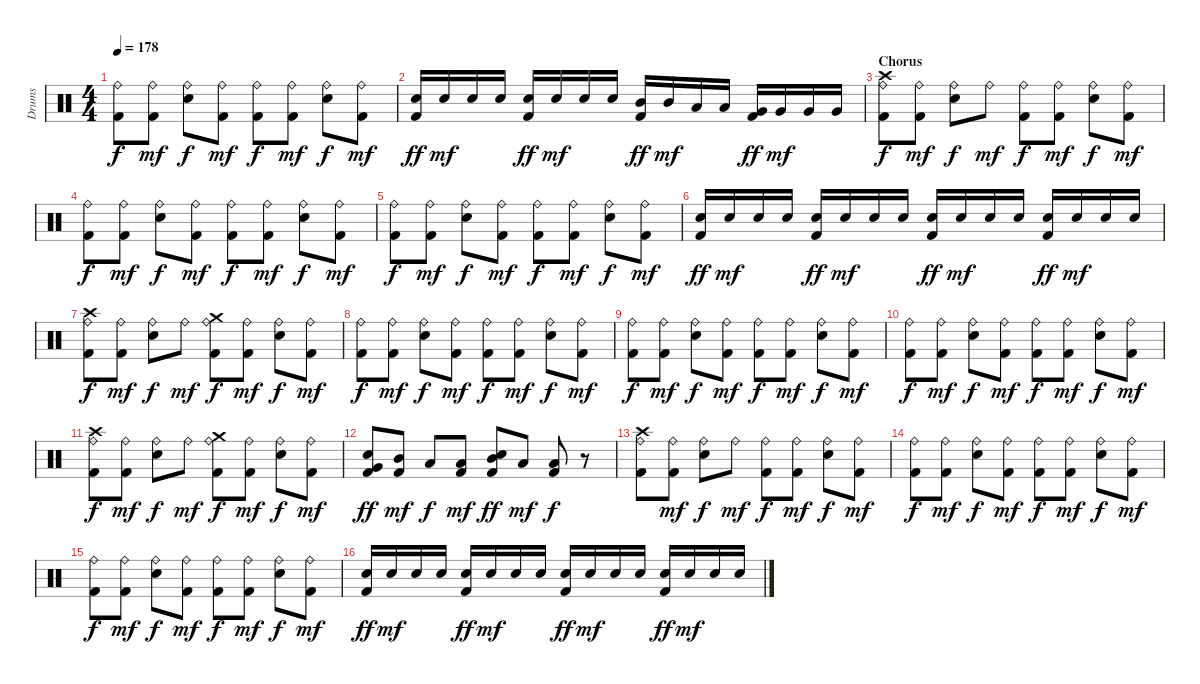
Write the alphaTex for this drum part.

\track ("Drums" "Drums") {instrument percussion}
\staff {score}
\articulation defaults
\ts (4 4)
\tempo 178
\clef neutral
\ks c
("Ride (bell)" "Kick (hit) 2").8{dy f} ("Ride (bell)" "Kick (hit) 2").8{dy mf} ("Ride (bell)" "Electric Snare (hit)").8{dy f} ("Ride (bell)" "Kick (hit) 2").8{dy mf} ("Ride (bell)" "Kick (hit) 2").8{dy f} ("Ride (bell)" "Kick (hit) 2").8{dy mf} ("Ride (bell)" "Electric Snare (hit)").8{dy f} ("Ride (bell)" "Kick (hit) 2").8{dy mf} |
("Electric Snare (hit)" "Kick (hit) 2").16{dy ff} "Electric Snare (hit)".16{dy mf} "Electric Snare (hit)".16 "Electric Snare (hit)".16 ("Electric Snare (hit)" "Kick (hit) 2").16{dy ff} "Electric Snare (hit)".16{dy mf} "Electric Snare (hit)".16 "Electric Snare (hit)".16 ("Mid Tom (hit)" "Kick (hit) 2").16{dy ff} "Mid Tom (hit)".16{dy mf} "Low Tom (hit)".16 "Low Tom (hit)".16 ("Very Low Tom (hit)" "Kick (hit) 2").16{dy ff} "Very Low Tom (hit)".16{dy mf} "Very Low Tom (hit)".16 "Very Low Tom (hit)".16 |
\section ("" "Chorus")
("Crash high (hit)" "Ride (bell)" "Kick (hit) 2").8{dy f} ("Ride (bell)" "Kick (hit) 2").8{dy mf} ("Ride (bell)" "Electric Snare (hit)").8{dy f} "Ride (bell)".8{dy mf} ("Ride (bell)" "Kick (hit) 2").8{dy f} ("Ride (bell)" "Kick (hit) 2").8{dy mf} ("Ride (bell)" "Electric Snare (hit)").8{dy f} ("Ride (bell)" "Kick (hit) 2").8{dy mf} |
("Ride (bell)" "Kick (hit) 2").8{dy f} ("Ride (bell)" "Kick (hit) 2").8{dy mf} ("Ride (bell)" "Electric Snare (hit)").8{dy f} ("Ride (bell)" "Kick (hit) 2").8{dy mf} ("Ride (bell)" "Kick (hit) 2").8{dy f} ("Ride (bell)" "Kick (hit) 2").8{dy mf} ("Ride (bell)" "Electric Snare (hit)").8{dy f} ("Ride (bell)" "Kick (hit) 2").8{dy mf} |
("Ride (bell)" "Kick (hit) 2").8{dy f} ("Ride (bell)" "Kick (hit) 2").8{dy mf} ("Ride (bell)" "Electric Snare (hit)").8{dy f} ("Ride (bell)" "Kick (hit) 2").8{dy mf} ("Ride (bell)" "Kick (hit) 2").8{dy f} ("Ride (bell)" "Kick (hit) 2").8{dy mf} ("Ride (bell)" "Electric Snare (hit)").8{dy f} ("Ride (bell)" "Kick (hit) 2").8{dy mf} |
("Electric Snare (hit)" "Kick (hit) 2").16{dy ff} "Electric Snare (hit)".16{dy mf} "Electric Snare (hit)".16 "Electric Snare (hit)".16 ("Electric Snare (hit)" "Kick (hit) 2").16{dy ff} "Electric Snare (hit)".16{dy mf} "Electric Snare (hit)".16 "Electric Snare (hit)".16 ("Electric Snare (hit)" "Kick (hit) 2").16{dy ff} "Electric Snare (hit)".16{dy mf} "Electric Snare (hit)".16 "Electric Snare (hit)".16 ("Electric Snare (hit)" "Kick (hit) 2").16{dy ff} "Electric Snare (hit)".16{dy mf} "Electric Snare (hit)".16 "Electric Snare (hit)".16 |
("Crash high (hit)" "Ride (bell)" "Kick (hit) 2").8{dy f} ("Ride (bell)" "Kick (hit) 2").8{dy mf} ("Ride (bell)" "Electric Snare (hit)").8{dy f} "Ride (bell)".8{dy mf} ("Crash medium (hit)" "Ride (bell)" "Kick (hit) 2").8{dy f} ("Ride (bell)" "Kick (hit) 2").8{dy mf} ("Ride (bell)" "Electric Snare (hit)").8{dy f} ("Ride (bell)" "Kick (hit) 2").8{dy mf} |
("Ride (bell)" "Kick (hit) 2").8{dy f} ("Ride (bell)" "Kick (hit) 2").8{dy mf} ("Ride (bell)" "Electric Snare (hit)").8{dy f} ("Ride (bell)" "Kick (hit) 2").8{dy mf} ("Ride (bell)" "Kick (hit) 2").8{dy f} ("Ride (bell)" "Kick (hit) 2").8{dy mf} ("Ride (bell)" "Electric Snare (hit)").8{dy f} ("Ride (bell)" "Kick (hit) 2").8{dy mf} |
("Ride (bell)" "Kick (hit) 2").8{dy f} ("Ride (bell)" "Kick (hit) 2").8{dy mf} ("Ride (bell)" "Electric Snare (hit)").8{dy f} ("Ride (bell)" "Kick (hit) 2").8{dy mf} ("Ride (bell)" "Kick (hit) 2").8{dy f} ("Ride (bell)" "Kick (hit) 2").8{dy mf} ("Ride (bell)" "Electric Snare (hit)").8{dy f} ("Ride (bell)" "Kick (hit) 2").8{dy mf} |
("Ride (bell)" "Kick (hit) 2").8{dy f} ("Ride (bell)" "Kick (hit) 2").8{dy mf} ("Ride (bell)" "Electric Snare (hit)").8{dy f} ("Ride (bell)" "Kick (hit) 2").8{dy mf} ("Ride (bell)" "Kick (hit) 2").8{dy f} ("Ride (bell)" "Kick (hit) 2").8{dy mf} ("Ride (bell)" "Electric Snare (hit)").8{dy f} ("Ride (bell)" "Kick (hit) 2").8{dy mf} |
("Crash high (hit)" "Ride (bell)" "Kick (hit) 2").8{dy f} ("Ride (bell)" "Kick (hit) 2").8{dy mf} ("Ride (bell)" "Electric Snare (hit)").8{dy f} "Ride (bell)".8{dy mf} ("Crash medium (hit)" "Ride (bell)" "Kick (hit) 2").8{dy f} ("Ride (bell)" "Kick (hit) 2").8{dy mf} ("Ride (bell)" "Electric Snare (hit)").8{dy f} ("Ride (bell)" "Kick (hit) 2").8{dy mf} |
("Very Low Tom (hit)" "Electric Snare (hit)" "Kick (hit) 2").8{dy ff} ("Mid Tom (hit)" "Kick (hit) 2").8{dy mf} "Low Tom (hit)".8{dy f} ("Low Tom (hit)" "Kick (hit) 2").8{dy mf} ("Mid Tom (hit)" "Electric Snare (hit)" "Kick (hit) 2").8{dy ff} "Low Tom (hit)".8{dy mf} ("Low Tom (hit)" "Kick (hit) 2").8{dy f} r.8 |
("Crash high (hit)" "Ride (bell)" "Kick (hit) 2").8 ("Ride (bell)" "Kick (hit) 2").8{dy mf} ("Ride (bell)" "Electric Snare (hit)").8{dy f} "Ride (bell)".8{dy mf} ("Ride (bell)" "Kick (hit) 2").8{dy f} ("Ride (bell)" "Kick (hit) 2").8{dy mf} ("Ride (bell)" "Electric Snare (hit)").8{dy f} ("Ride (bell)" "Kick (hit) 2").8{dy mf} |
("Ride (bell)" "Kick (hit) 2").8{dy f} ("Ride (bell)" "Kick (hit) 2").8{dy mf} ("Ride (bell)" "Electric Snare (hit)").8{dy f} ("Ride (bell)" "Kick (hit) 2").8{dy mf} ("Ride (bell)" "Kick (hit) 2").8{dy f} ("Ride (bell)" "Kick (hit) 2").8{dy mf} ("Ride (bell)" "Electric Snare (hit)").8{dy f} ("Ride (bell)" "Kick (hit) 2").8{dy mf} |
("Ride (bell)" "Kick (hit) 2").8{dy f} ("Ride (bell)" "Kick (hit) 2").8{dy mf} ("Ride (bell)" "Electric Snare (hit)").8{dy f} ("Ride (bell)" "Kick (hit) 2").8{dy mf} ("Ride (bell)" "Kick (hit) 2").8{dy f} ("Ride (bell)" "Kick (hit) 2").8{dy mf} ("Ride (bell)" "Electric Snare (hit)").8{dy f} ("Ride (bell)" "Kick (hit) 2").8{dy mf} |
("Electric Snare (hit)" "Kick (hit) 2").16{dy ff} "Electric Snare (hit)".16{dy mf} "Electric Snare (hit)".16 "Electric Snare (hit)".16 ("Electric Snare (hit)" "Kick (hit) 2").16{dy ff} "Electric Snare (hit)".16{dy mf} "Electric Snare (hit)".16 "Electric Snare (hit)".16 ("Electric Snare (hit)" "Kick (hit) 2").16{dy ff} "Electric Snare (hit)".16{dy mf} "Electric Snare (hit)".16 "Electric Snare (hit)".16 ("Electric Snare (hit)" "Kick (hit) 2").16{dy ff} "Electric Snare (hit)".16{dy mf} "Electric Snare (hit)".16 "Electric Snare (hit)".16
